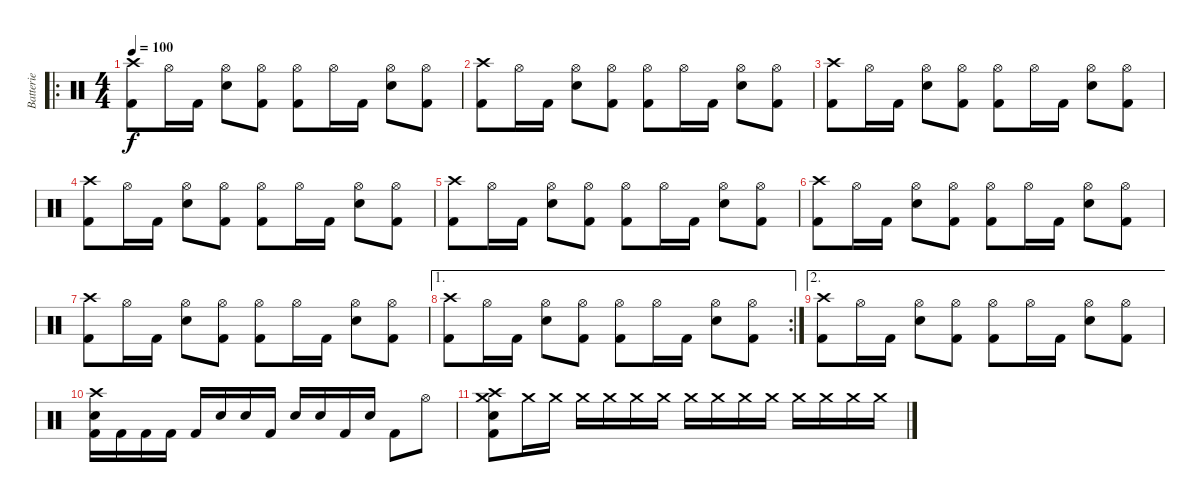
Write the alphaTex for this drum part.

\track ("Batterie" "Batterie") {instrument percussion}
\staff {score}
\articulation defaults
\ro
\ts (4 4)
\tempo 100
\clef neutral
\ks c
("Crash high (hit)" "Kick (hit) 2").8{dy f} "Hi-Hat (open)".16 "Kick (hit) 2".16 ("Hi-Hat (open)" "Snare (hit) 2").8 ("Hi-Hat (open)" "Kick (hit) 2").8 ("Hi-Hat (open)" "Kick (hit) 2").8 "Hi-Hat (open)".16 "Kick (hit) 2".16 ("Hi-Hat (open)" "Snare (hit) 2").8 ("Hi-Hat (open)" "Kick (hit) 2").8 |
("Crash high (hit)" "Kick (hit) 2").8 "Hi-Hat (open)".16 "Kick (hit) 2".16 ("Hi-Hat (open)" "Snare (hit) 2").8 ("Hi-Hat (open)" "Kick (hit) 2").8 ("Hi-Hat (open)" "Kick (hit) 2").8 "Hi-Hat (open)".16 "Kick (hit) 2".16 ("Hi-Hat (open)" "Snare (hit) 2").8 ("Hi-Hat (open)" "Kick (hit) 2").8 |
("Crash high (hit)" "Kick (hit) 2").8 "Hi-Hat (open)".16 "Kick (hit) 2".16 ("Hi-Hat (open)" "Snare (hit) 2").8 ("Hi-Hat (open)" "Kick (hit) 2").8 ("Hi-Hat (open)" "Kick (hit) 2").8 "Hi-Hat (open)".16 "Kick (hit) 2".16 ("Hi-Hat (open)" "Snare (hit) 2").8 ("Hi-Hat (open)" "Kick (hit) 2").8 |
("Crash high (hit)" "Kick (hit) 2").8 "Hi-Hat (open)".16 "Kick (hit) 2".16 ("Hi-Hat (open)" "Snare (hit) 2").8 ("Hi-Hat (open)" "Kick (hit) 2").8 ("Hi-Hat (open)" "Kick (hit) 2").8 "Hi-Hat (open)".16 "Kick (hit) 2".16 ("Hi-Hat (open)" "Snare (hit) 2").8 ("Hi-Hat (open)" "Kick (hit) 2").8 |
("Crash high (hit)" "Kick (hit) 2").8 "Hi-Hat (open)".16 "Kick (hit) 2".16 ("Hi-Hat (open)" "Snare (hit) 2").8 ("Hi-Hat (open)" "Kick (hit) 2").8 ("Hi-Hat (open)" "Kick (hit) 2").8 "Hi-Hat (open)".16 "Kick (hit) 2".16 ("Hi-Hat (open)" "Snare (hit) 2").8 ("Hi-Hat (open)" "Kick (hit) 2").8 |
("Crash high (hit)" "Kick (hit) 2").8 "Hi-Hat (open)".16 "Kick (hit) 2".16 ("Hi-Hat (open)" "Snare (hit) 2").8 ("Hi-Hat (open)" "Kick (hit) 2").8 ("Hi-Hat (open)" "Kick (hit) 2").8 "Hi-Hat (open)".16 "Kick (hit) 2".16 ("Hi-Hat (open)" "Snare (hit) 2").8 ("Hi-Hat (open)" "Kick (hit) 2").8 |
("Crash high (hit)" "Kick (hit) 2").8 "Hi-Hat (open)".16 "Kick (hit) 2".16 ("Hi-Hat (open)" "Snare (hit) 2").8 ("Hi-Hat (open)" "Kick (hit) 2").8 ("Hi-Hat (open)" "Kick (hit) 2").8 "Hi-Hat (open)".16 "Kick (hit) 2".16 ("Hi-Hat (open)" "Snare (hit) 2").8 ("Hi-Hat (open)" "Kick (hit) 2").8 |
\ae 1
\rc 2
("Crash high (hit)" "Kick (hit) 2").8 "Hi-Hat (open)".16 "Kick (hit) 2".16 ("Hi-Hat (open)" "Snare (hit) 2").8 ("Hi-Hat (open)" "Kick (hit) 2").8 ("Hi-Hat (open)" "Kick (hit) 2").8 "Hi-Hat (open)".16 "Kick (hit) 2".16 ("Hi-Hat (open)" "Snare (hit) 2").8 ("Hi-Hat (open)" "Kick (hit) 2").8 |
\ae 2
("Crash high (hit)" "Kick (hit) 2").8 "Hi-Hat (open)".16 "Kick (hit) 2".16 ("Hi-Hat (open)" "Snare (hit) 2").8 ("Hi-Hat (open)" "Kick (hit) 2").8 ("Hi-Hat (open)" "Kick (hit) 2").8 "Hi-Hat (open)".16 "Kick (hit) 2".16 ("Hi-Hat (open)" "Snare (hit) 2").8 ("Hi-Hat (open)" "Kick (hit) 2").8 |
("Crash high (hit)" "Snare (hit) 2" "Kick (hit) 2").16 "Kick (hit) 2".16 "Kick (hit) 2".16 "Kick (hit) 2".16 "Kick (hit) 2".16 "Snare (hit) 2".16 "Snare (hit) 2".16 "Kick (hit) 2".16 "Snare (hit) 2".16 "Snare (hit) 2".16 "Kick (hit) 2".16 "Snare (hit) 2".16 "Kick (hit) 2".8 "Hi-Hat (open)".8 |
("Crash medium (hit)" "Crash high (hit)" "Snare (hit) 2" "Kick (hit) 2").8 "Crash medium (hit)".16{volume 0} "Crash medium (hit)".16 "Crash medium (hit)".16 "Crash medium (hit)".16 "Crash medium (hit)".16 "Crash medium (hit)".16 "Crash medium (hit)".16 "Crash medium (hit)".16 "Crash medium (hit)".16 "Crash medium (hit)".16 "Crash medium (hit)".16 "Crash medium (hit)".16 "Crash medium (hit)".16 "Crash medium (hit)".16
